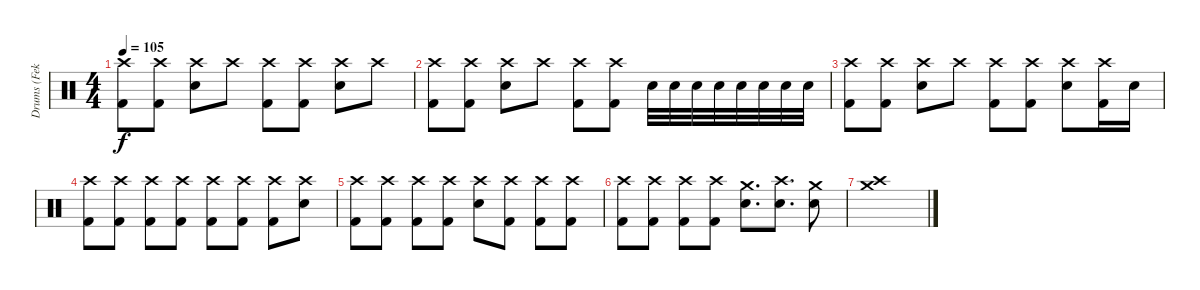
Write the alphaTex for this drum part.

\track ("Drums (Fekete 'Feka' Balázs)" "Drums (Fek") {instrument percussion}
\staff {score}
\articulation defaults
\ts (4 4)
\tempo 105
\clef neutral
\ks c
("Crash high (hit)" "Kick (hit) 2").8{dy f} ("Crash high (hit)" "Kick (hit) 2").8 ("Crash high (hit)" "Snare (hit) 2").8 "Crash high (hit)".8 ("Crash high (hit)" "Kick (hit) 2").8 ("Crash high (hit)" "Kick (hit) 2").8 ("Crash high (hit)" "Snare (hit) 2").8 "Crash high (hit)".8 |
("Crash high (hit)" "Kick (hit) 2").8 ("Crash high (hit)" "Kick (hit) 2").8 ("Crash high (hit)" "Snare (hit) 2").8 "Crash high (hit)".8 ("Crash high (hit)" "Kick (hit) 2").8 ("Crash high (hit)" "Kick (hit) 2").8 "Snare (hit) 2".32 "Snare (hit) 2".32 "Snare (hit) 2".32 "Snare (hit) 2".32 "Snare (hit) 2".32 "Snare (hit) 2".32 "Snare (hit) 2".32 "Snare (hit) 2".32 |
("Crash high (hit)" "Kick (hit) 2").8 ("Crash high (hit)" "Kick (hit) 2").8 ("Crash high (hit)" "Snare (hit) 2").8 "Crash high (hit)".8 ("Crash high (hit)" "Kick (hit) 2").8 ("Crash high (hit)" "Kick (hit) 2").8 ("Crash high (hit)" "Snare (hit) 2").8 ("Crash high (hit)" "Kick (hit) 2").16 "Snare (hit) 2".16 |
("Crash high (hit)" "Kick (hit) 2").8 ("Crash high (hit)" "Kick (hit) 2").8 ("Crash high (hit)" "Kick (hit) 2").8 ("Crash high (hit)" "Kick (hit) 2").8 ("Crash high (hit)" "Kick (hit) 2").8 ("Crash high (hit)" "Kick (hit) 2").8 ("Crash high (hit)" "Kick (hit) 2").8 ("Crash high (hit)" "Snare (hit) 2").8 |
("Crash high (hit)" "Kick (hit) 2").8 ("Crash high (hit)" "Kick (hit) 2").8 ("Crash high (hit)" "Kick (hit) 2").8 ("Crash high (hit)" "Kick (hit) 2").8 ("Crash high (hit)" "Snare (hit) 2").8 ("Crash high (hit)" "Kick (hit) 2").8 ("Crash high (hit)" "Kick (hit) 2").8 ("Crash high (hit)" "Kick (hit) 2").8 |
("Crash high (hit)" "Kick (hit) 2").8 ("Crash high (hit)" "Kick (hit) 2").8 ("Crash high (hit)" "Kick (hit) 2").8 ("Crash high (hit)" "Kick (hit) 2").8 ("Crash medium (hit)" "Snare (hit) 2").8{d} ("Crash high (hit)" "Snare (hit) 2").8{d} ("Crash medium (hit)" "Snare (hit) 2").8 |
("Crash high (hit)" "Crash medium (hit)").1
